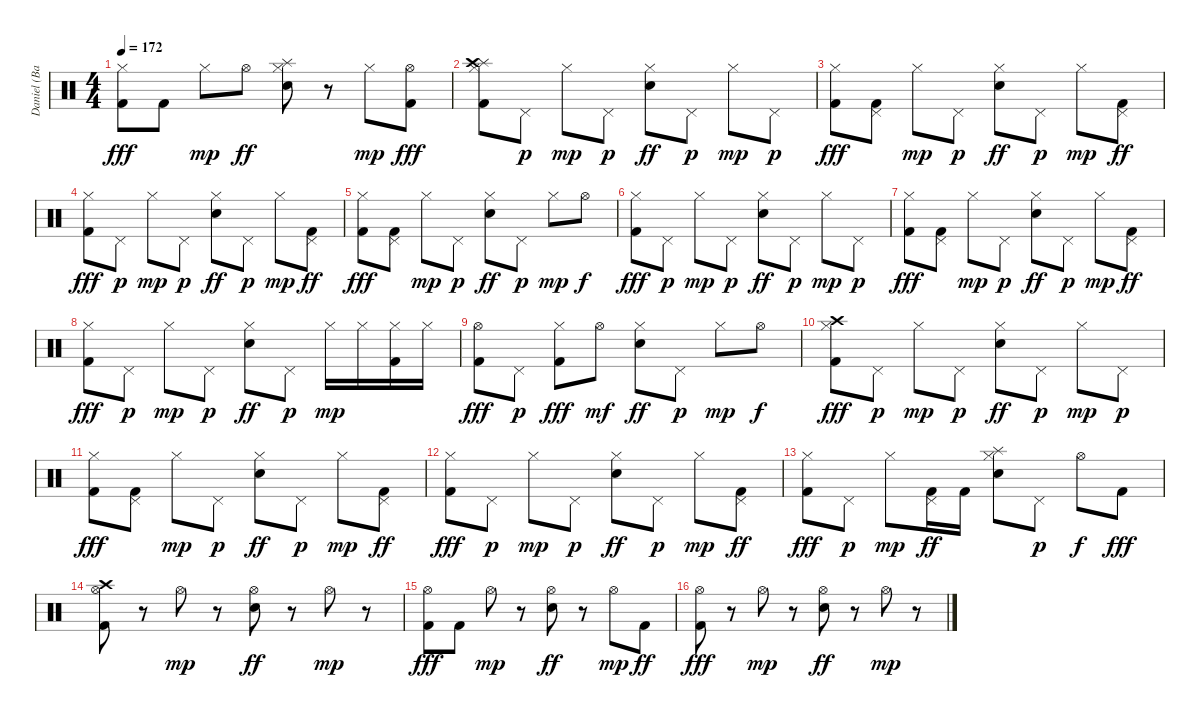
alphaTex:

\track ("Daniel (Bateria)" "Daniel (Ba") {instrument percussion}
\staff {score}
\articulation defaults
\ts (4 4)
\tempo 172
\clef neutral
\ks c
("Hi-Hat (closed)" "Kick (hit) 2").8{dy fff} "Kick (hit) 2".8 "Hi-Hat (closed)".8{dy mp} "Hi-Hat (open)".8{dy ff} ("Splash (hit)" "Hi-Hat (closed)" "Electric Snare (hit)").8 r.8 "Hi-Hat (closed)".8{dy mp} ("Hi-Hat (open)" "Kick (hit) 2").8{dy fff} |
("Splash (hit)" "Hi-Hat (closed)" "Crash high (hit)" "Kick (hit) 2").8 "Pedal Hi-Hat (hit)".8{dy p} "Hi-Hat (closed)".8{dy mp} "Pedal Hi-Hat (hit)".8{dy p} ("Hi-Hat (closed)" "Electric Snare (hit)").8{dy ff} "Pedal Hi-Hat (hit)".8{dy p} "Hi-Hat (closed)".8{dy mp} "Pedal Hi-Hat (hit)".8{dy p} |
("Hi-Hat (closed)" "Kick (hit) 2").8{dy fff} ("Pedal Hi-Hat (hit)" "Kick (hit) 2").8 "Hi-Hat (closed)".8{dy mp} "Pedal Hi-Hat (hit)".8{dy p} ("Hi-Hat (closed)" "Electric Snare (hit)").8{dy ff} "Pedal Hi-Hat (hit)".8{dy p} "Hi-Hat (closed)".8{dy mp} ("Pedal Hi-Hat (hit)" "Kick (hit) 2").8{dy ff} |
("Hi-Hat (closed)" "Kick (hit) 2").8{dy fff} "Pedal Hi-Hat (hit)".8{dy p} "Hi-Hat (closed)".8{dy mp} "Pedal Hi-Hat (hit)".8{dy p} ("Hi-Hat (closed)" "Electric Snare (hit)").8{dy ff} "Pedal Hi-Hat (hit)".8{dy p} "Hi-Hat (closed)".8{dy mp} ("Pedal Hi-Hat (hit)" "Kick (hit) 2").8{dy ff} |
("Hi-Hat (closed)" "Kick (hit) 2").8{dy fff} ("Pedal Hi-Hat (hit)" "Kick (hit) 2").8 "Hi-Hat (closed)".8{dy mp} "Pedal Hi-Hat (hit)".8{dy p} ("Hi-Hat (closed)" "Electric Snare (hit)").8{dy ff} "Pedal Hi-Hat (hit)".8{dy p} "Hi-Hat (closed)".8{dy mp} "Hi-Hat (open)".8{dy f} |
("Hi-Hat (closed)" "Kick (hit) 2").8{dy fff} "Pedal Hi-Hat (hit)".8{dy p} "Hi-Hat (closed)".8{dy mp} "Pedal Hi-Hat (hit)".8{dy p} ("Hi-Hat (closed)" "Electric Snare (hit)").8{dy ff} "Pedal Hi-Hat (hit)".8{dy p} "Hi-Hat (closed)".8{dy mp} "Pedal Hi-Hat (hit)".8{dy p} |
("Hi-Hat (closed)" "Kick (hit) 2").8{dy fff} ("Pedal Hi-Hat (hit)" "Kick (hit) 2").8 "Hi-Hat (closed)".8{dy mp} "Pedal Hi-Hat (hit)".8{dy p} ("Hi-Hat (closed)" "Electric Snare (hit)").8{dy ff} "Pedal Hi-Hat (hit)".8{dy p} "Hi-Hat (closed)".8{dy mp} ("Pedal Hi-Hat (hit)" "Kick (hit) 2").8{dy ff} |
("Hi-Hat (closed)" "Kick (hit) 2").8{dy fff} "Pedal Hi-Hat (hit)".8{dy p} "Hi-Hat (closed)".8{dy mp} "Pedal Hi-Hat (hit)".8{dy p} ("Hi-Hat (closed)" "Electric Snare (hit)").8{dy ff} "Pedal Hi-Hat (hit)".8{dy p} "Hi-Hat (closed)".16{dy mp} "Hi-Hat (closed)".16 ("Hi-Hat (closed)" "Kick (hit) 2").16 "Hi-Hat (closed)".16 |
("Hi-Hat (open)" "Kick (hit) 2").8{dy fff} "Pedal Hi-Hat (hit)".8{dy p} ("Hi-Hat (closed)" "Kick (hit) 2").8{dy fff} "Hi-Hat (open)".8{dy mf} ("Hi-Hat (closed)" "Electric Snare (hit)").8{dy ff} "Pedal Hi-Hat (hit)".8{dy p} "Hi-Hat (closed)".8{dy mp} "Hi-Hat (open)".8{dy f} |
("Hi-Hat (closed)" "Crash high (hit)" "Kick (hit) 2").8{dy fff} "Pedal Hi-Hat (hit)".8{dy p} "Hi-Hat (closed)".8{dy mp} "Pedal Hi-Hat (hit)".8{dy p} ("Hi-Hat (closed)" "Electric Snare (hit)").8{dy ff} "Pedal Hi-Hat (hit)".8{dy p} "Hi-Hat (closed)".8{dy mp} "Pedal Hi-Hat (hit)".8{dy p} |
("Hi-Hat (closed)" "Kick (hit) 2").8{dy fff} ("Pedal Hi-Hat (hit)" "Kick (hit) 2").8 "Hi-Hat (closed)".8{dy mp} "Pedal Hi-Hat (hit)".8{dy p} ("Hi-Hat (closed)" "Electric Snare (hit)").8{dy ff} "Pedal Hi-Hat (hit)".8{dy p} "Hi-Hat (closed)".8{dy mp} ("Pedal Hi-Hat (hit)" "Kick (hit) 2").8{dy ff} |
("Hi-Hat (closed)" "Kick (hit) 2").8{dy fff} "Pedal Hi-Hat (hit)".8{dy p} "Hi-Hat (closed)".8{dy mp} "Pedal Hi-Hat (hit)".8{dy p} ("Hi-Hat (closed)" "Electric Snare (hit)").8{dy ff} "Pedal Hi-Hat (hit)".8{dy p} "Hi-Hat (closed)".8{dy mp} ("Pedal Hi-Hat (hit)" "Kick (hit) 2").8{dy ff} |
("Hi-Hat (closed)" "Kick (hit) 2").8{dy fff} "Pedal Hi-Hat (hit)".8{dy p} "Hi-Hat (closed)".8{dy mp} ("Pedal Hi-Hat (hit)" "Kick (hit) 2").16{dy ff} "Kick (hit) 2".16 ("Splash (hit)" "Hi-Hat (closed)" "Electric Snare (hit)").8 "Pedal Hi-Hat (hit)".8{dy p} "Hi-Hat (open)".8{dy f} "Kick (hit) 2".8{dy fff} |
("Hi-Hat (open)" "Crash high (hit)" "Kick (hit) 2").8 r.8 "Hi-Hat (open)".8{dy mp} r.8 ("Hi-Hat (open)" "Electric Snare (hit)").8{dy ff} r.8 "Hi-Hat (open)".8{dy mp} r.8 |
("Hi-Hat (open)" "Kick (hit) 2").8{dy fff} "Kick (hit) 2".8 "Hi-Hat (open)".8{dy mp} r.8 ("Hi-Hat (open)" "Electric Snare (hit)").8{dy ff} r.8 "Hi-Hat (open)".8{dy mp} "Kick (hit) 2".8{dy ff} |
("Hi-Hat (open)" "Kick (hit) 2").8{dy fff} r.8 "Hi-Hat (open)".8{dy mp} r.8 ("Hi-Hat (open)" "Electric Snare (hit)").8{dy ff} r.8 "Hi-Hat (open)".8{dy mp} r.8
